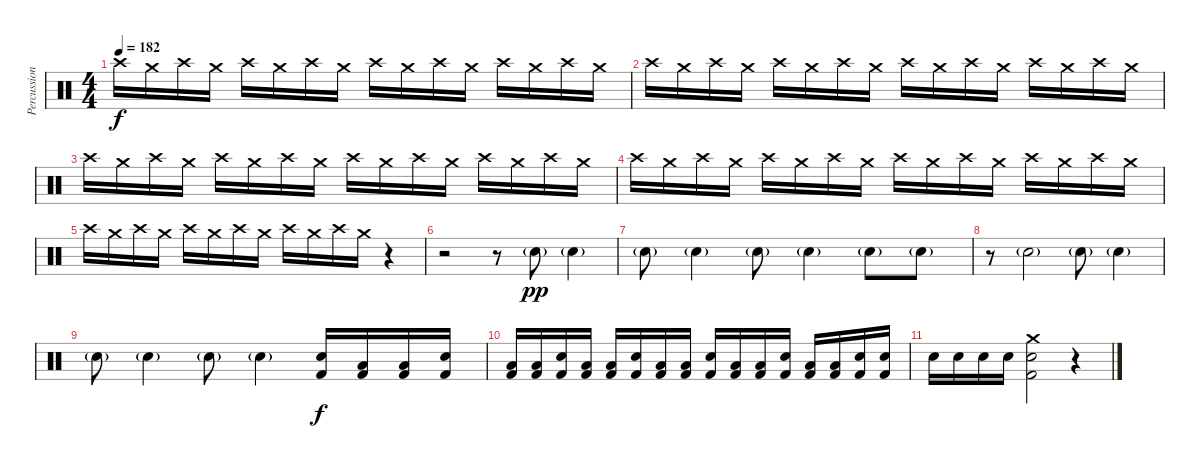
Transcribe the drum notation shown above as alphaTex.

\track ("Percussions" "Percussion") {instrument percussion}
\staff {score}
\articulation defaults
\ts (4 4)
\tempo 182
\clef neutral
\ks c "Crash high (hit)".16{dy f} "Crash medium (hit)".16 "Crash high (hit)".16 "Crash medium (hit)".16 "Crash high (hit)".16 "Crash medium (hit)".16 "Crash high (hit)".16 "Crash medium (hit)".16 "Crash high (hit)".16 "Crash medium (hit)".16 "Crash high (hit)".16 "Crash medium (hit)".16 "Crash high (hit)".16 "Crash medium (hit)".16 "Crash high (hit)".16 "Crash medium (hit)".16
|
"Crash high (hit)".16 "Crash medium (hit)".16 "Crash high (hit)".16 "Crash medium (hit)".16 "Crash high (hit)".16 "Crash medium (hit)".16 "Crash high (hit)".16 "Crash medium (hit)".16 "Crash high (hit)".16 "Crash medium (hit)".16 "Crash high (hit)".16 "Crash medium (hit)".16 "Crash high (hit)".16 "Crash medium (hit)".16 "Crash high (hit)".16 "Crash medium (hit)".16 |
"Crash high (hit)".16 "Crash medium (hit)".16 "Crash high (hit)".16 "Crash medium (hit)".16 "Crash high (hit)".16 "Crash medium (hit)".16 "Crash high (hit)".16 "Crash medium (hit)".16 "Crash high (hit)".16 "Crash medium (hit)".16 "Crash high (hit)".16 "Crash medium (hit)".16 "Crash high (hit)".16 "Crash medium (hit)".16 "Crash high (hit)".16 "Crash medium (hit)".16 |
"Crash high (hit)".16 "Crash medium (hit)".16 "Crash high (hit)".16 "Crash medium (hit)".16 "Crash high (hit)".16 "Crash medium (hit)".16 "Crash high (hit)".16 "Crash medium (hit)".16 "Crash high (hit)".16 "Crash medium (hit)".16 "Crash high (hit)".16 "Crash medium (hit)".16 "Crash high (hit)".16 "Crash medium (hit)".16 "Crash high (hit)".16 "Crash medium (hit)".16 |
"Crash high (hit)".16 "Crash medium (hit)".16 "Crash high (hit)".16 "Crash medium (hit)".16 "Crash high (hit)".16 "Crash medium (hit)".16 "Crash high (hit)".16 "Crash medium (hit)".16 "Crash high (hit)".16 "Crash medium (hit)".16 "Crash high (hit)".16 "Crash medium (hit)".16 r.4 |
r.2 r.8 "Electric Snare (hit)"{g}.8{dy pp volume 16} "Electric Snare (hit)"{g}.4 |
"Electric Snare (hit)"{g}.8 "Electric Snare (hit)"{g}.4 "Electric Snare (hit)"{g}.8 "Electric Snare (hit)"{g}.4 "Electric Snare (hit)"{g}.8 "Electric Snare (hit)"{g}.8 |
r.8 "Electric Snare (hit)"{g}.2 "Electric Snare (hit)"{g}.8 "Electric Snare (hit)"{g}.4 |
"Electric Snare (hit)"{g}.8 "Electric Snare (hit)"{g}.4 "Electric Snare (hit)"{g}.8 "Electric Snare (hit)"{g}.4 ("Kick (hit) 2" "Electric Snare (hit)").16{dy f} ("Kick (hit) 2" "Low Floor Tom (hit)").16 ("Kick (hit) 2" "Low Floor Tom (hit)").16 ("Kick (hit) 2" "Electric Snare (hit)").16 |
("Kick (hit) 2" "Low Floor Tom (hit)").16 ("Kick (hit) 2" "Low Floor Tom (hit)").16 ("Kick (hit) 2" "Electric Snare (hit)").16 ("Kick (hit) 2" "Low Floor Tom (hit)").16 ("Kick (hit) 2" "Low Floor Tom (hit)").16 ("Kick (hit) 2" "Electric Snare (hit)").16 ("Kick (hit) 2" "Low Floor Tom (hit)").16 ("Kick (hit) 2" "Low Floor Tom (hit)").16 ("Kick (hit) 2" "Electric Snare (hit)").16 ("Kick (hit) 2" "Low Floor Tom (hit)").16 ("Kick (hit) 2" "Low Floor Tom (hit)").16 ("Kick (hit) 2" "Electric Snare (hit)").16 ("Kick (hit) 2" "Low Floor Tom (hit)").16 ("Kick (hit) 2" "Low Floor Tom (hit)").16 ("Kick (hit) 2" "Electric Snare (hit)").16 ("Kick (hit) 2" "Electric Snare (hit)").16 |
"Electric Snare (hit)".16 "Electric Snare (hit)".16 "Electric Snare (hit)".16 "Electric Snare (hit)".16 ("Kick (hit) 2" "Electric Snare (hit)" "Crash medium (hit)").2 r.4
